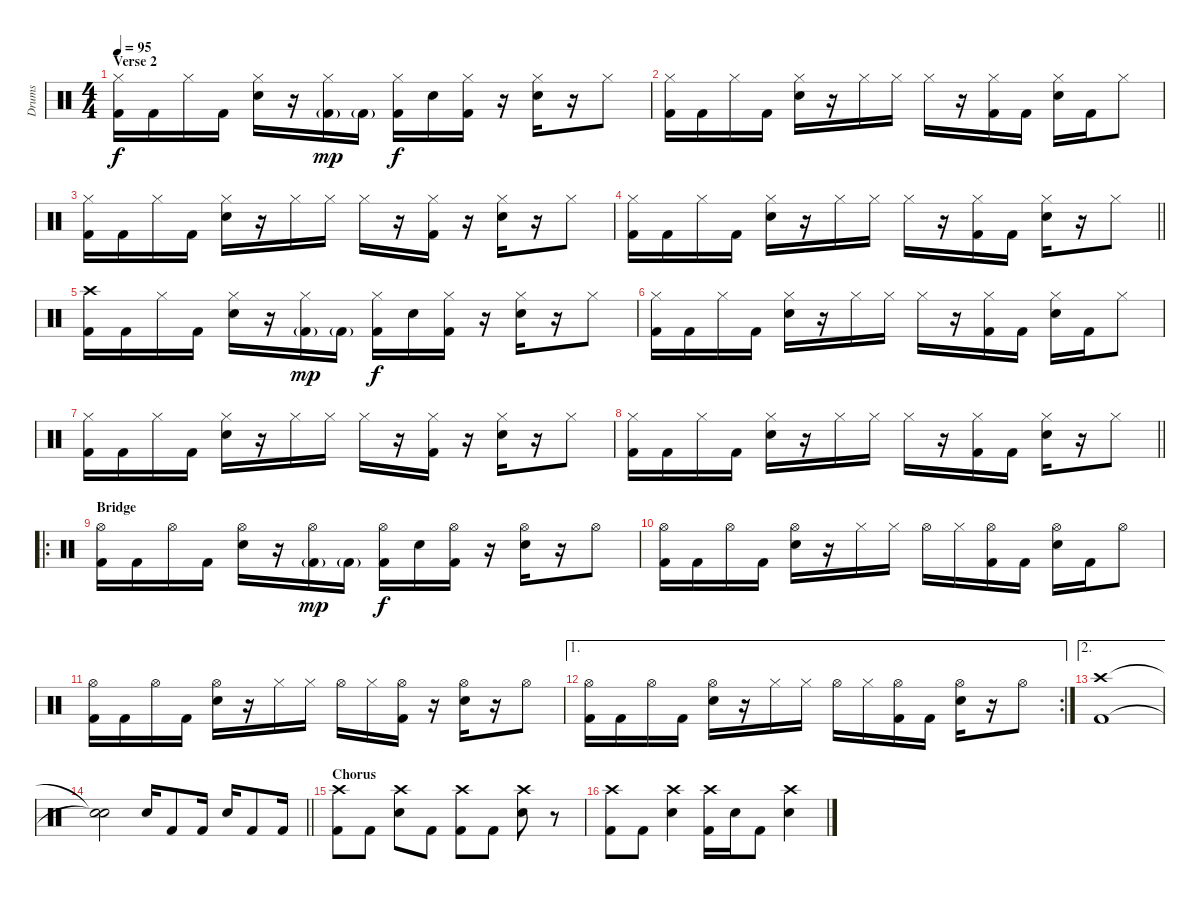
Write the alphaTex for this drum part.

\track ("Drums" "Drums") {instrument percussion}
\staff {score}
\articulation defaults
\ts (4 4)
\section ("" "Verse 2")
\tempo 95
\clef neutral
\ks c
("Hi-Hat (closed)" "Kick (hit) 2").16{dy f} "Kick (hit) 2".16 "Hi-Hat (closed)".16 "Kick (hit) 2".16 ("Hi-Hat (closed)" "Electric Snare (hit)").16 r.16 ("Hi-Hat (closed)" "Kick (hit) 2"{g}).16{dy mp} "Kick (hit) 2"{g}.16 ("Hi-Hat (closed)" "Kick (hit) 2").16{dy f} "Electric Snare (hit)".16 ("Hi-Hat (closed)" "Kick (hit) 2").16 r.16 ("Hi-Hat (closed)" "Electric Snare (hit)").16 r.16 "Hi-Hat (closed)".8 |
("Hi-Hat (closed)" "Kick (hit) 2").16 "Kick (hit) 2".16 "Hi-Hat (closed)".16 "Kick (hit) 2".16 ("Hi-Hat (closed)" "Electric Snare (hit)").16 r.16 "Hi-Hat (closed)".16 "Hi-Hat (closed)".16 "Hi-Hat (closed)".16 r.16 ("Hi-Hat (closed)" "Kick (hit) 2").16 "Kick (hit) 2".16 ("Hi-Hat (closed)" "Electric Snare (hit)").16 "Kick (hit) 2".16 "Hi-Hat (closed)".8 |
("Hi-Hat (closed)" "Kick (hit) 2").16 "Kick (hit) 2".16 "Hi-Hat (closed)".16 "Kick (hit) 2".16 ("Hi-Hat (closed)" "Electric Snare (hit)").16 r.16 "Hi-Hat (closed)".16 "Hi-Hat (closed)".16 "Hi-Hat (closed)".16 r.16 ("Hi-Hat (closed)" "Kick (hit) 2").16 r.16 ("Hi-Hat (closed)" "Electric Snare (hit)").16 r.16 "Hi-Hat (closed)".8 |
\barLineRight lightlight
("Hi-Hat (closed)" "Kick (hit) 2").16 "Kick (hit) 2".16 "Hi-Hat (closed)".16 "Kick (hit) 2".16 ("Hi-Hat (closed)" "Electric Snare (hit)").16 r.16 "Hi-Hat (closed)".16 "Hi-Hat (closed)".16 "Hi-Hat (closed)".16 r.16 ("Hi-Hat (closed)" "Kick (hit) 2").16 "Kick (hit) 2".16 ("Hi-Hat (closed)" "Electric Snare (hit)").16 r.16 "Hi-Hat (closed)".8 |
("Crash high (hit)" "Kick (hit) 2").16 "Kick (hit) 2".16 "Hi-Hat (closed)".16 "Kick (hit) 2".16 ("Hi-Hat (closed)" "Electric Snare (hit)").16 r.16 ("Hi-Hat (closed)" "Kick (hit) 2"{g}).16{dy mp} "Kick (hit) 2"{g}.16 ("Hi-Hat (closed)" "Kick (hit) 2").16{dy f} "Electric Snare (hit)".16 ("Hi-Hat (closed)" "Kick (hit) 2").16 r.16 ("Hi-Hat (closed)" "Electric Snare (hit)").16 r.16 "Hi-Hat (closed)".8 |
("Hi-Hat (closed)" "Kick (hit) 2").16 "Kick (hit) 2".16 "Hi-Hat (closed)".16 "Kick (hit) 2".16 ("Hi-Hat (closed)" "Electric Snare (hit)").16 r.16 "Hi-Hat (closed)".16 "Hi-Hat (closed)".16 "Hi-Hat (closed)".16 r.16 ("Hi-Hat (closed)" "Kick (hit) 2").16 "Kick (hit) 2".16 ("Hi-Hat (closed)" "Electric Snare (hit)").16 "Kick (hit) 2".16 "Hi-Hat (closed)".8 |
("Hi-Hat (closed)" "Kick (hit) 2").16 "Kick (hit) 2".16 "Hi-Hat (closed)".16 "Kick (hit) 2".16 ("Hi-Hat (closed)" "Electric Snare (hit)").16 r.16 "Hi-Hat (closed)".16 "Hi-Hat (closed)".16 "Hi-Hat (closed)".16 r.16 ("Hi-Hat (closed)" "Kick (hit) 2").16 r.16 ("Hi-Hat (closed)" "Electric Snare (hit)").16 r.16 "Hi-Hat (closed)".8 |
\barLineRight lightlight
("Hi-Hat (closed)" "Kick (hit) 2").16 "Kick (hit) 2".16 "Hi-Hat (closed)".16 "Kick (hit) 2".16 ("Hi-Hat (closed)" "Electric Snare (hit)").16 r.16 "Hi-Hat (closed)".16 "Hi-Hat (closed)".16 "Hi-Hat (closed)".16 r.16 ("Hi-Hat (closed)" "Kick (hit) 2").16 "Kick (hit) 2".16 ("Hi-Hat (closed)" "Electric Snare (hit)").16 r.16 "Hi-Hat (closed)".8 |
\ro
\section ("" "Bridge")
("Hi-Hat (open)" "Kick (hit) 2").16 "Kick (hit) 2".16 "Hi-Hat (open)".16 "Kick (hit) 2".16 ("Hi-Hat (open)" "Electric Snare (hit)").16 r.16 ("Hi-Hat (open)" "Kick (hit) 2"{g}).16{dy mp} "Kick (hit) 2"{g}.16 ("Hi-Hat (open)" "Kick (hit) 2").16{dy f} "Electric Snare (hit)".16 ("Hi-Hat (open)" "Kick (hit) 2").16 r.16 ("Hi-Hat (open)" "Electric Snare (hit)").16 r.16 "Hi-Hat (open)".8 |
("Hi-Hat (open)" "Kick (hit) 2").16 "Kick (hit) 2".16 "Hi-Hat (open)".16 "Kick (hit) 2".16 ("Hi-Hat (open)" "Electric Snare (hit)").16 r.16 "Hi-Hat (closed)".16 "Hi-Hat (closed)".16 "Hi-Hat (open)".16 "Hi-Hat (closed)".16 ("Hi-Hat (open)" "Kick (hit) 2").16 "Kick (hit) 2".16 ("Hi-Hat (open)" "Electric Snare (hit)").16 "Kick (hit) 2".16 "Hi-Hat (open)".8 |
("Hi-Hat (open)" "Kick (hit) 2").16 "Kick (hit) 2".16 "Hi-Hat (open)".16 "Kick (hit) 2".16 ("Hi-Hat (open)" "Electric Snare (hit)").16 r.16 "Hi-Hat (closed)".16 "Hi-Hat (closed)".16 "Hi-Hat (open)".16 "Hi-Hat (closed)".16 ("Hi-Hat (open)" "Kick (hit) 2").16 r.16 ("Hi-Hat (open)" "Electric Snare (hit)").16 r.16 "Hi-Hat (open)".8 |
\ae 1
\rc 2
("Hi-Hat (open)" "Kick (hit) 2").16 "Kick (hit) 2".16 "Hi-Hat (open)".16 "Kick (hit) 2".16 ("Hi-Hat (open)" "Electric Snare (hit)").16 r.16 "Hi-Hat (closed)".16 "Hi-Hat (closed)".16 "Hi-Hat (open)".16 "Hi-Hat (closed)".16 ("Hi-Hat (open)" "Kick (hit) 2").16 "Kick (hit) 2".16 ("Hi-Hat (open)" "Electric Snare (hit)").16 r.16 "Hi-Hat (open)".8 |
\ae 2
("Crash high (hit)" "Kick (hit) 2").1 |
\barLineRight lightlight
("Snare (hit)"{t} "Snare (hit)"{t}).2 "Electric Snare (hit)".16 "Kick (hit) 2".8 "Kick (hit) 2".16 "Electric Snare (hit)".16 "Kick (hit) 2".8 "Kick (hit) 2".16 |
\section ("" "Chorus")
("Crash high (hit)" "Kick (hit) 2").8 "Kick (hit) 2".8 ("Crash high (hit)" "Electric Snare (hit)").8 "Kick (hit) 2".8 ("Crash high (hit)" "Kick (hit) 2").8 "Kick (hit) 2".8 ("Crash high (hit)" "Electric Snare (hit)").8 r.8 |
("Crash high (hit)" "Kick (hit) 2").8 "Kick (hit) 2".8 ("Crash high (hit)" "Electric Snare (hit)").4 ("Crash high (hit)" "Kick (hit) 2").16 "Electric Snare (hit)".16 "Kick (hit) 2".8 ("Crash high (hit)" "Electric Snare (hit)").4
